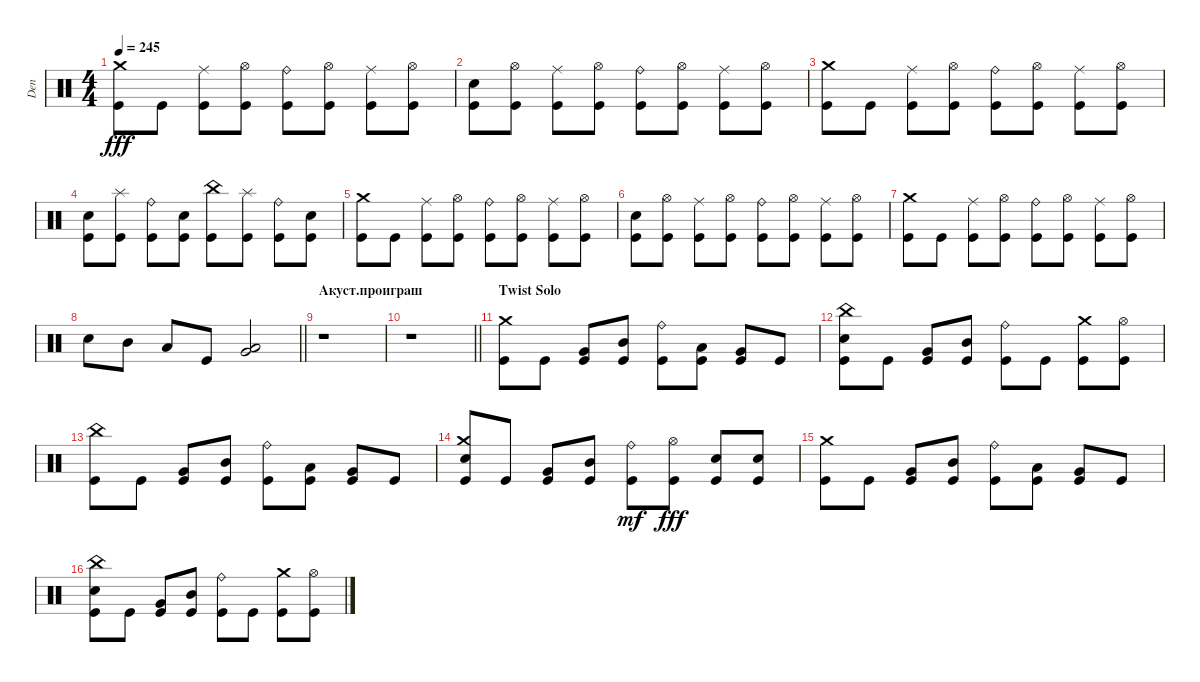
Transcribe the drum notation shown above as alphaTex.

\track ("Den" "Den") {instrument percussion}
\staff {score}
\articulation defaults
\ts (4 4)
\tempo 245
\clef neutral
\ks c
("Kick (hit)" "Crash medium (hit)").8{dy fff} "Kick (hit)".8 ("Kick (hit)" "Ride (middle)").8 ("Kick (hit)" "Hi-Hat (open)").8 ("Kick (hit)" "Ride (bell)").8 ("Kick (hit)" "Hi-Hat (open)").8 ("Kick (hit)" "Ride (middle)").8 ("Kick (hit)" "Hi-Hat (open)").8 |
("Kick (hit)" "Electric Snare (hit)").8 ("Kick (hit)" "Hi-Hat (open)").8 ("Ride (middle)" "Kick (hit)").8 ("Kick (hit)" "Hi-Hat (open)").8 ("Kick (hit)" "Ride (bell)").8 ("Kick (hit)" "Hi-Hat (open)").8 ("Kick (hit)" "Ride (middle)").8 ("Kick (hit)" "Hi-Hat (open)").8 |
("Kick (hit)" "Crash medium (hit)").8 "Kick (hit)".8 ("Kick (hit)" "Ride (middle)").8 ("Kick (hit)" "Hi-Hat (open)").8 ("Kick (hit)" "Ride (bell)").8 ("Kick (hit)" "Hi-Hat (open)").8 ("Kick (hit)" "Ride (middle)").8 ("Kick (hit)" "Hi-Hat (open)").8 |
("Kick (hit)" "Electric Snare (hit)").8 ("Kick (hit)" "Splash (hit)").8 ("Ride (bell)" "Kick (hit)").8 ("Kick (hit)" "Electric Snare (hit)").8 ("Kick (hit)" "China (hit)").8 ("Kick (hit)" "Splash (hit)").8 ("Kick (hit)" "Ride (bell)").8 ("Kick (hit)" "Electric Snare (hit)").8 |
("Kick (hit)" "Crash medium (hit)").8 "Kick (hit)".8 ("Kick (hit)" "Ride (middle)").8 ("Kick (hit)" "Hi-Hat (open)").8 ("Kick (hit)" "Ride (bell)").8 ("Kick (hit)" "Hi-Hat (open)").8 ("Kick (hit)" "Ride (middle)").8 ("Kick (hit)" "Hi-Hat (open)").8 |
("Kick (hit)" "Electric Snare (hit)").8 ("Kick (hit)" "Hi-Hat (open)").8 ("Ride (middle)" "Kick (hit)").8 ("Kick (hit)" "Hi-Hat (open)").8 ("Kick (hit)" "Ride (bell)").8 ("Kick (hit)" "Hi-Hat (open)").8 ("Kick (hit)" "Ride (middle)").8 ("Kick (hit)" "Hi-Hat (open)").8 |
("Kick (hit)" "Crash medium (hit)").8 "Kick (hit)".8 ("Kick (hit)" "Ride (middle)").8 ("Kick (hit)" "Hi-Hat (open)").8 ("Kick (hit)" "Ride (bell)").8 ("Kick (hit)" "Hi-Hat (open)").8 ("Kick (hit)" "Ride (middle)").8 ("Kick (hit)" "Hi-Hat (open)").8 |
\barLineRight lightlight "Electric Snare (hit)".8 "Mid Tom (hit)".8 "Low Tom (hit)".8 "Kick (hit)".8
("Low Tom (hit)" "Very Low Tom (hit)").2 |
\section ("" "Акуст.проиграш")
r.1 |
\barLineRight lightlight
r.1 |
\section ("" "Twist Solo")
("Crash medium (hit)" "Kick (hit)").8 "Kick (hit)".8 ("Kick (hit)" "Very Low Tom (hit)").8 ("Kick (hit)" "Mid Tom (hit)").8 ("Kick (hit)" "Ride (bell)").8 ("Kick (hit)" "Low Tom (hit)").8 ("Kick (hit)" "Very Low Tom (hit)").8 "Kick (hit)".8 |
("Kick (hit)" "China (hit)" "Electric Snare (hit)").8 "Kick (hit)".8 ("Kick (hit)" "Very Low Tom (hit)").8 ("Kick (hit)" "Mid Tom (hit)").8 ("Kick (hit)" "Ride (bell)").8 "Kick (hit)".8 ("Kick (hit)" "Crash medium (hit)").8 ("Kick (hit)" "Hi-Hat (open)").8 |
("China (hit)" "Kick (hit)").8 "Kick (hit)".8 ("Kick (hit)" "Very Low Tom (hit)").8 ("Kick (hit)" "Mid Tom (hit)").8 ("Kick (hit)" "Ride (bell)").8 ("Kick (hit)" "Low Tom (hit)").8 ("Kick (hit)" "Very Low Tom (hit)").8 "Kick (hit)".8 |
("Kick (hit)" "Crash medium (hit)" "Electric Snare (hit)").8 "Kick (hit)".8 ("Kick (hit)" "Very Low Tom (hit)").8 ("Kick (hit)" "Mid Tom (hit)").8 ("Kick (hit)" "Ride (bell)").8{dy mf} ("Kick (hit)" "Hi-Hat (open)").8{dy fff} ("Kick (hit)" "Electric Snare (hit)").8 ("Kick (hit)" "Electric Snare (hit)").8 |
("Crash medium (hit)" "Kick (hit)").8 "Kick (hit)".8 ("Kick (hit)" "Very Low Tom (hit)").8 ("Kick (hit)" "Mid Tom (hit)").8 ("Kick (hit)" "Ride (bell)").8 ("Kick (hit)" "Low Tom (hit)").8 ("Kick (hit)" "Very Low Tom (hit)").8 "Kick (hit)".8 |
("Kick (hit)" "China (hit)" "Electric Snare (hit)").8 "Kick (hit)".8 ("Kick (hit)" "Very Low Tom (hit)").8 ("Kick (hit)" "Mid Tom (hit)").8 ("Kick (hit)" "Ride (bell)").8 "Kick (hit)".8 ("Kick (hit)" "Crash medium (hit)").8 ("Kick (hit)" "Hi-Hat (open)").8
